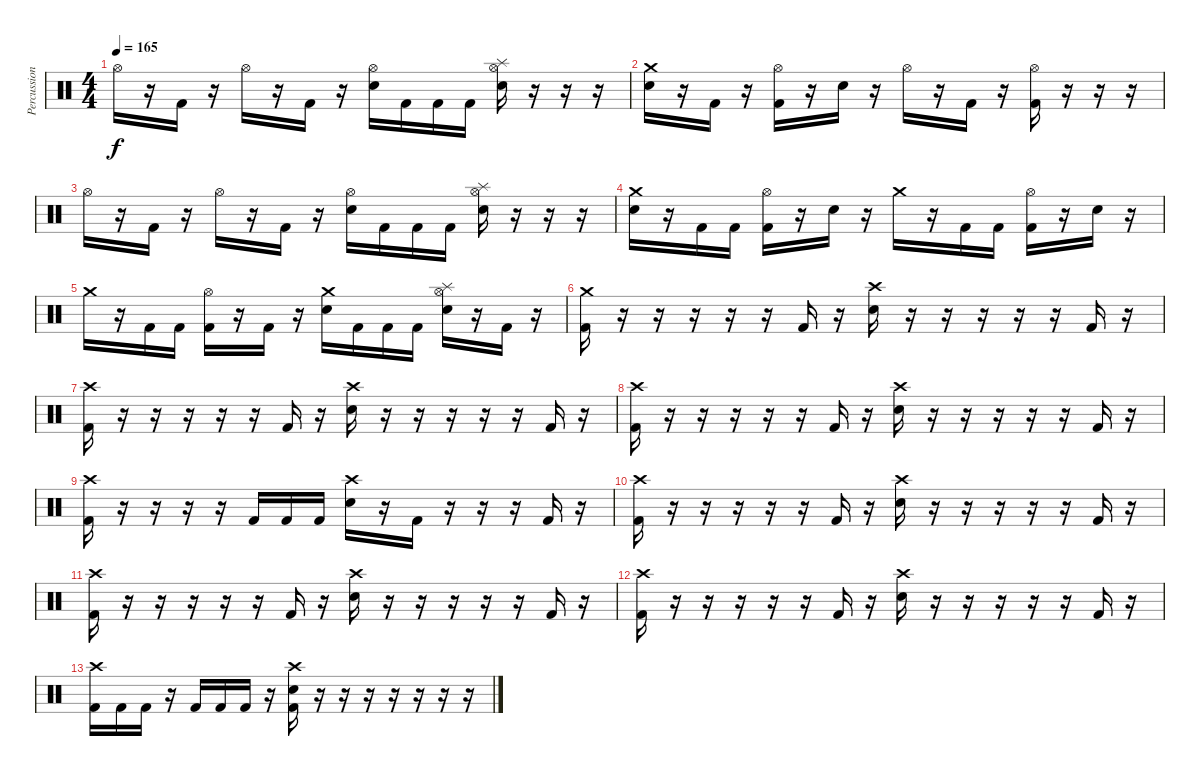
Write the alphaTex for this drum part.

\track ("Percussion" "Percussion") {instrument percussion}
\staff {score}
\articulation defaults
\ts (4 4)
\tempo 165
\clef neutral
\ks c "Hi-Hat (open)".16{dy f}
r.16 "Kick (hit) 2".16 r.16 "Hi-Hat (open)".16 r.16 "Kick (hit) 2".16 r.16 ("Hi-Hat (open)" "Electric Snare (hit)").16 "Kick (hit) 2".16 "Kick (hit) 2".16 "Kick (hit) 2".16 ("Hi-Hat (open)" "Splash (hit)" "Electric Snare (hit)").16 r.16 r.16 r.16 |
("Crash medium (hit)" "Electric Snare (hit)").16 r.16 "Kick (hit) 2".16 r.16 ("Hi-Hat (open)" "Kick (hit) 2").16 r.16 "Electric Snare (hit)".16 r.16 "Hi-Hat (open)".16 r.16 "Kick (hit) 2".16 r.16 ("Hi-Hat (open)" "Kick (hit) 2").16 r.16 r.16 r.16 |
"Hi-Hat (open)".16 r.16 "Kick (hit) 2".16 r.16 "Hi-Hat (open)".16 r.16 "Kick (hit) 2".16 r.16 ("Hi-Hat (open)" "Electric Snare (hit)").16 "Kick (hit) 2".16 "Kick (hit) 2".16 "Kick (hit) 2".16 ("Hi-Hat (open)" "Splash (hit)" "Electric Snare (hit)").16 r.16 r.16 r.16 |
("Crash medium (hit)" "Electric Snare (hit)").16 r.16 "Kick (hit) 2".16 "Kick (hit) 2".16 ("Hi-Hat (open)" "Kick (hit) 2").16 r.16 "Electric Snare (hit)".16 r.16 "Crash medium (hit)".16 r.16 "Kick (hit) 2".16 "Kick (hit) 2".16 ("Hi-Hat (open)" "Kick (hit) 2").16 r.16 "Electric Snare (hit)".16 r.16 |
"Crash medium (hit)".16 r.16 "Kick (hit) 2".16 "Kick (hit) 2".16 ("Hi-Hat (open)" "Kick (hit) 2").16 r.16 "Kick (hit) 2".16 r.16 ("Crash medium (hit)" "Electric Snare (hit)").16 "Kick (hit) 2".16 "Kick (hit) 2".16 "Kick (hit) 2".16 ("Hi-Hat (open)" "Splash (hit)" "Electric Snare (hit)").16 r.16 "Kick (hit) 2".16 r.16 |
("Crash medium (hit)" "Kick (hit) 2").16 r.16 r.16 r.16 r.16 r.16 "Kick (hit) 2".16 r.16 ("Crash high (hit)" "Electric Snare (hit)").16 r.16 r.16 r.16 r.16 r.16 "Kick (hit) 2".16 r.16 |
("Crash high (hit)" "Kick (hit) 2").16 r.16 r.16 r.16 r.16 r.16 "Kick (hit) 2".16 r.16 ("Crash high (hit)" "Electric Snare (hit)").16 r.16 r.16 r.16 r.16 r.16 "Kick (hit) 2".16 r.16 |
("Crash high (hit)" "Kick (hit) 2").16 r.16 r.16 r.16 r.16 r.16 "Kick (hit) 2".16 r.16 ("Crash high (hit)" "Electric Snare (hit)").16 r.16 r.16 r.16 r.16 r.16 "Kick (hit) 2".16 r.16 |
("Crash high (hit)" "Kick (hit) 2").16 r.16 r.16 r.16 r.16 "Kick (hit) 2".16 "Kick (hit) 2".16 "Kick (hit) 2".16 ("Crash high (hit)" "Electric Snare (hit)").16 r.16 "Kick (hit) 2".16 r.16 r.16 r.16 "Kick (hit) 2".16 r.16 |
("Crash high (hit)" "Kick (hit) 2").16 r.16 r.16 r.16 r.16 r.16 "Kick (hit) 2".16 r.16 ("Crash high (hit)" "Electric Snare (hit)").16 r.16 r.16 r.16 r.16 r.16 "Kick (hit) 2".16 r.16 |
("Crash high (hit)" "Kick (hit) 2").16 r.16 r.16 r.16 r.16 r.16 "Kick (hit) 2".16 r.16 ("Crash high (hit)" "Electric Snare (hit)").16 r.16 r.16 r.16 r.16 r.16 "Kick (hit) 2".16 r.16 |
("Crash high (hit)" "Kick (hit) 2").16 r.16 r.16 r.16 r.16 r.16 "Kick (hit) 2".16 r.16 ("Crash high (hit)" "Electric Snare (hit)").16 r.16 r.16 r.16 r.16 r.16 "Kick (hit) 2".16 r.16 |
("Crash high (hit)" "Kick (hit) 2").16 "Kick (hit) 2".16 "Kick (hit) 2".16 r.16 "Kick (hit) 2".16 "Kick (hit) 2".16 "Kick (hit) 2".16 r.16 ("Crash high (hit)" "Electric Snare (hit)" "Kick (hit) 2").16 r.16 r.16 r.16 r.16 r.16 r.16 r.16
